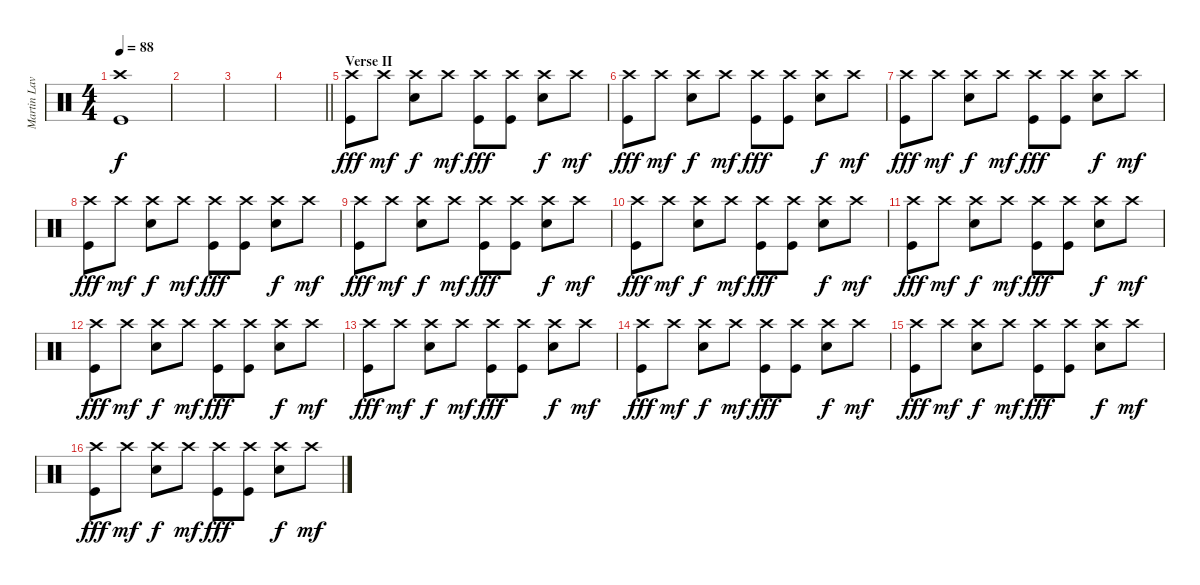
\track ("Martin Lavalle" "Martin Lav") {instrument percussion}
\staff {score}
\articulation defaults
\ts (4 4)
\tempo 88
\clef neutral
\ks c
("Crash high (hit)" "Kick (hit)").1{dy f} |
|
|
\barLineRight lightlight
|
\section ("" "Verse II")
("Crash high (hit)" "Kick (hit)").8{dy fff} "Crash high (hit)".8{dy mf} ("Crash high (hit)" "Snare (hit) 2").8{dy f} "Crash high (hit)".8{dy mf} ("Crash high (hit)" "Kick (hit)").8{dy fff} ("Crash high (hit)" "Kick (hit)").8 ("Crash high (hit)" "Snare (hit) 2").8{dy f} "Crash high (hit)".8{dy mf} |
("Crash high (hit)" "Kick (hit)").8{dy fff} "Crash high (hit)".8{dy mf} ("Crash high (hit)" "Snare (hit) 2").8{dy f} "Crash high (hit)".8{dy mf} ("Crash high (hit)" "Kick (hit)").8{dy fff} ("Crash high (hit)" "Kick (hit)").8 ("Crash high (hit)" "Snare (hit) 2").8{dy f} "Crash high (hit)".8{dy mf} |
("Crash high (hit)" "Kick (hit)").8{dy fff} "Crash high (hit)".8{dy mf} ("Crash high (hit)" "Snare (hit) 2").8{dy f} "Crash high (hit)".8{dy mf} ("Crash high (hit)" "Kick (hit)").8{dy fff} ("Crash high (hit)" "Kick (hit)").8 ("Crash high (hit)" "Snare (hit) 2").8{dy f} "Crash high (hit)".8{dy mf} |
("Crash high (hit)" "Kick (hit)").8{dy fff} "Crash high (hit)".8{dy mf} ("Crash high (hit)" "Snare (hit) 2").8{dy f} "Crash high (hit)".8{dy mf} ("Crash high (hit)" "Kick (hit)").8{dy fff} ("Crash high (hit)" "Kick (hit)").8 ("Crash high (hit)" "Snare (hit) 2").8{dy f} "Crash high (hit)".8{dy mf} |
("Crash high (hit)" "Kick (hit)").8{dy fff} "Crash high (hit)".8{dy mf} ("Crash high (hit)" "Snare (hit) 2").8{dy f} "Crash high (hit)".8{dy mf} ("Crash high (hit)" "Kick (hit)").8{dy fff} ("Crash high (hit)" "Kick (hit)").8 ("Crash high (hit)" "Snare (hit) 2").8{dy f} "Crash high (hit)".8{dy mf} |
("Crash high (hit)" "Kick (hit)").8{dy fff} "Crash high (hit)".8{dy mf} ("Crash high (hit)" "Snare (hit) 2").8{dy f} "Crash high (hit)".8{dy mf} ("Crash high (hit)" "Kick (hit)").8{dy fff} ("Crash high (hit)" "Kick (hit)").8 ("Crash high (hit)" "Snare (hit) 2").8{dy f} "Crash high (hit)".8{dy mf} |
("Crash high (hit)" "Kick (hit)").8{dy fff} "Crash high (hit)".8{dy mf} ("Crash high (hit)" "Snare (hit) 2").8{dy f} "Crash high (hit)".8{dy mf} ("Crash high (hit)" "Kick (hit)").8{dy fff} ("Crash high (hit)" "Kick (hit)").8 ("Crash high (hit)" "Snare (hit) 2").8{dy f} "Crash high (hit)".8{dy mf} |
("Crash high (hit)" "Kick (hit)").8{dy fff} "Crash high (hit)".8{dy mf} ("Crash high (hit)" "Snare (hit) 2").8{dy f} "Crash high (hit)".8{dy mf} ("Crash high (hit)" "Kick (hit)").8{dy fff} ("Crash high (hit)" "Kick (hit)").8 ("Crash high (hit)" "Snare (hit) 2").8{dy f} "Crash high (hit)".8{dy mf} |
("Crash high (hit)" "Kick (hit)").8{dy fff} "Crash high (hit)".8{dy mf} ("Crash high (hit)" "Snare (hit) 2").8{dy f} "Crash high (hit)".8{dy mf} ("Crash high (hit)" "Kick (hit)").8{dy fff} ("Crash high (hit)" "Kick (hit)").8 ("Crash high (hit)" "Snare (hit) 2").8{dy f} "Crash high (hit)".8{dy mf} |
("Crash high (hit)" "Kick (hit)").8{dy fff} "Crash high (hit)".8{dy mf} ("Crash high (hit)" "Snare (hit) 2").8{dy f} "Crash high (hit)".8{dy mf} ("Crash high (hit)" "Kick (hit)").8{dy fff} ("Crash high (hit)" "Kick (hit)").8 ("Crash high (hit)" "Snare (hit) 2").8{dy f} "Crash high (hit)".8{dy mf} |
("Crash high (hit)" "Kick (hit)").8{dy fff} "Crash high (hit)".8{dy mf} ("Crash high (hit)" "Snare (hit) 2").8{dy f} "Crash high (hit)".8{dy mf} ("Crash high (hit)" "Kick (hit)").8{dy fff} ("Crash high (hit)" "Kick (hit)").8 ("Crash high (hit)" "Snare (hit) 2").8{dy f} "Crash high (hit)".8{dy mf} |
("Crash high (hit)" "Kick (hit)").8{dy fff} "Crash high (hit)".8{dy mf} ("Crash high (hit)" "Snare (hit) 2").8{dy f} "Crash high (hit)".8{dy mf} ("Crash high (hit)" "Kick (hit)").8{dy fff} ("Crash high (hit)" "Kick (hit)").8 ("Crash high (hit)" "Snare (hit) 2").8{dy f} "Crash high (hit)".8{dy mf}
